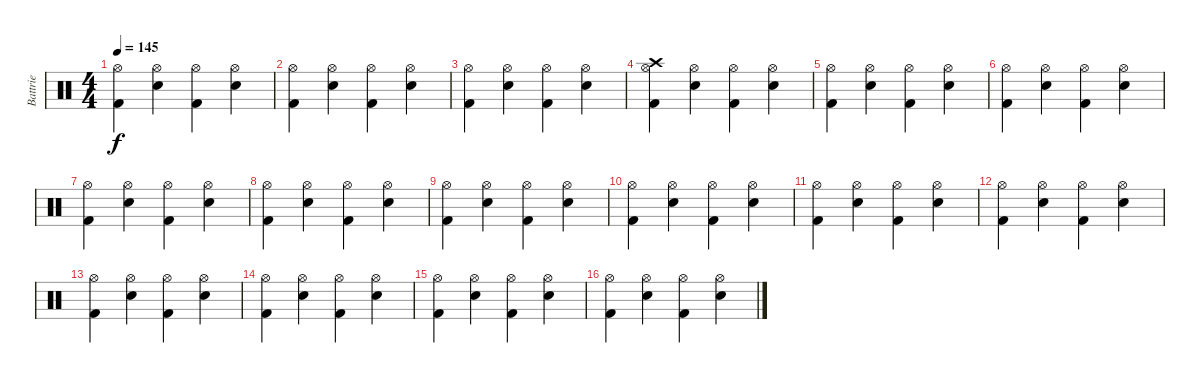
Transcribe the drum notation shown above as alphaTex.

\track ("Battrie" "Battrie") {instrument percussion}
\staff {score}
\articulation defaults
\ts (4 4)
\tempo 145
\clef neutral
\ks c
("Hi-Hat (open)" "Kick (hit) 2").4{dy f} ("Hi-Hat (open)" "Snare (hit) 2").4 ("Hi-Hat (open)" "Kick (hit) 2").4 ("Snare (hit) 2" "Hi-Hat (open)").4 |
("Hi-Hat (open)" "Kick (hit) 2").4 ("Hi-Hat (open)" "Snare (hit) 2").4 ("Hi-Hat (open)" "Kick (hit) 2").4 ("Snare (hit) 2" "Hi-Hat (open)").4 |
("Hi-Hat (open)" "Kick (hit) 2").4 ("Hi-Hat (open)" "Snare (hit) 2").4 ("Hi-Hat (open)" "Kick (hit) 2").4 ("Snare (hit) 2" "Hi-Hat (open)").4 |
("Hi-Hat (open)" "Kick (hit) 2" "Crash high (hit)").4 ("Hi-Hat (open)" "Snare (hit) 2").4 ("Hi-Hat (open)" "Kick (hit) 2").4 ("Snare (hit) 2" "Hi-Hat (open)").4 |
("Hi-Hat (open)" "Kick (hit) 2").4 ("Hi-Hat (open)" "Snare (hit) 2").4 ("Hi-Hat (open)" "Kick (hit) 2").4 ("Snare (hit) 2" "Hi-Hat (open)").4 |
("Hi-Hat (open)" "Kick (hit) 2").4 ("Hi-Hat (open)" "Snare (hit) 2").4 ("Hi-Hat (open)" "Kick (hit) 2").4 ("Snare (hit) 2" "Hi-Hat (open)").4 |
("Hi-Hat (open)" "Kick (hit) 2").4 ("Hi-Hat (open)" "Snare (hit) 2").4 ("Hi-Hat (open)" "Kick (hit) 2").4 ("Snare (hit) 2" "Hi-Hat (open)").4 |
("Hi-Hat (open)" "Kick (hit) 2").4 ("Hi-Hat (open)" "Snare (hit) 2").4 ("Hi-Hat (open)" "Kick (hit) 2").4 ("Snare (hit) 2" "Hi-Hat (open)").4 |
("Hi-Hat (open)" "Kick (hit) 2").4 ("Hi-Hat (open)" "Snare (hit) 2").4 ("Hi-Hat (open)" "Kick (hit) 2").4 ("Snare (hit) 2" "Hi-Hat (open)").4 |
("Hi-Hat (open)" "Kick (hit) 2").4 ("Hi-Hat (open)" "Snare (hit) 2").4 ("Hi-Hat (open)" "Kick (hit) 2").4 ("Snare (hit) 2" "Hi-Hat (open)").4 |
("Hi-Hat (open)" "Kick (hit) 2").4 ("Hi-Hat (open)" "Snare (hit) 2").4 ("Hi-Hat (open)" "Kick (hit) 2").4 ("Snare (hit) 2" "Hi-Hat (open)").4 |
("Hi-Hat (open)" "Kick (hit) 2").4 ("Hi-Hat (open)" "Snare (hit) 2").4 ("Hi-Hat (open)" "Kick (hit) 2").4 ("Snare (hit) 2" "Hi-Hat (open)").4 |
("Hi-Hat (open)" "Kick (hit) 2").4 ("Hi-Hat (open)" "Snare (hit) 2").4 ("Hi-Hat (open)" "Kick (hit) 2").4 ("Snare (hit) 2" "Hi-Hat (open)").4 |
("Hi-Hat (open)" "Kick (hit) 2").4 ("Hi-Hat (open)" "Snare (hit) 2").4 ("Hi-Hat (open)" "Kick (hit) 2").4 ("Snare (hit) 2" "Hi-Hat (open)").4 |
("Hi-Hat (open)" "Kick (hit) 2").4 ("Hi-Hat (open)" "Snare (hit) 2").4 ("Hi-Hat (open)" "Kick (hit) 2").4 ("Snare (hit) 2" "Hi-Hat (open)").4 |
("Hi-Hat (open)" "Kick (hit) 2").4 ("Hi-Hat (open)" "Snare (hit) 2").4 ("Hi-Hat (open)" "Kick (hit) 2").4 ("Snare (hit) 2" "Hi-Hat (open)").4
